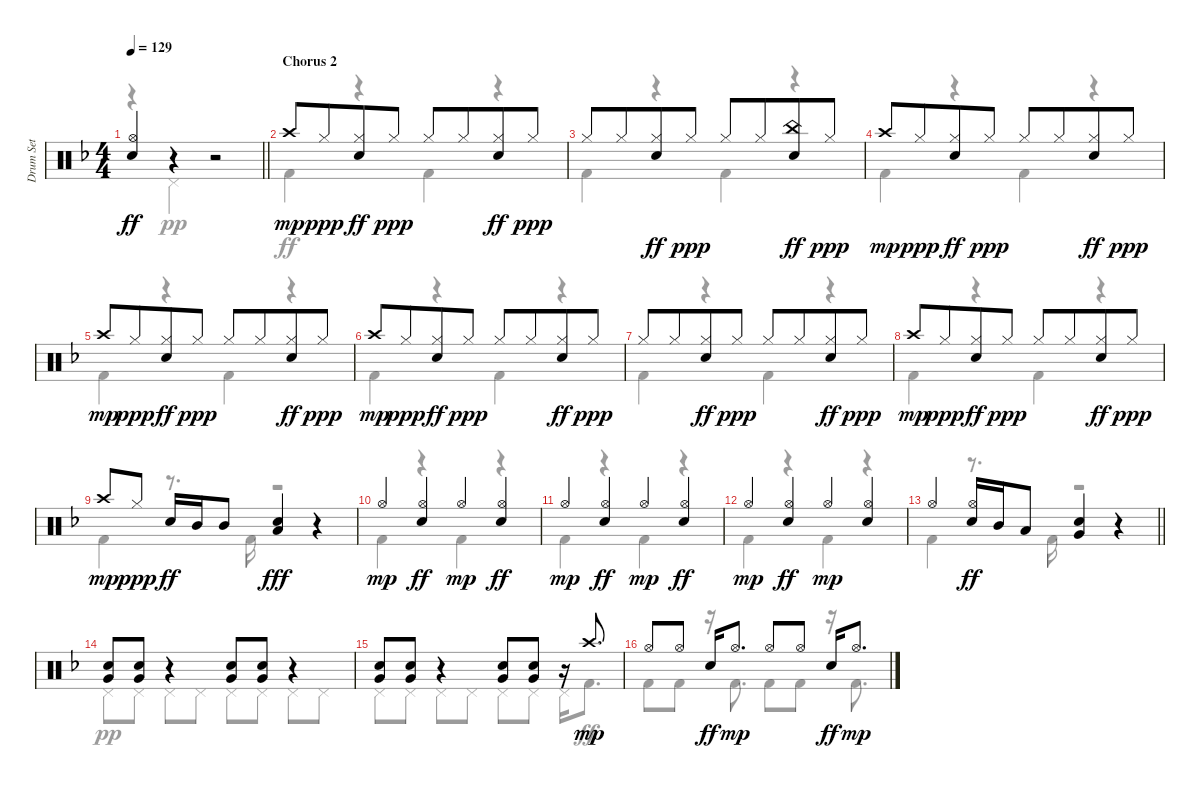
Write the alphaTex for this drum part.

\track ("Drum Set" "Drum Set") {instrument percussion}
\staff {score}
\articulation defaults
\voice
\ts (4 4)
\tempo 129
\clef neutral
\barLineRight lightlight
\ks dminor
("Hi-Hat (open)" "Electric Snare (hit)").4{dy ff} r.4 r.2 |
\section ("" "Chorus 2")
"Crash high (hit)".8{dy mp} "Hi-Hat (closed)".8{dy ppp beam merge} ("Hi-Hat (closed)" "Electric Snare (hit)").8{dy ff} "Hi-Hat (closed)".8{dy ppp} "Hi-Hat (closed)".8 "Hi-Hat (closed)".8{beam merge} ("Hi-Hat (closed)" "Electric Snare (hit)").8{dy ff} "Hi-Hat (closed)".8{dy ppp} |
"Hi-Hat (closed)".8 "Hi-Hat (closed)".8{beam merge} ("Hi-Hat (closed)" "Electric Snare (hit)").8{dy ff} "Hi-Hat (closed)".8{dy ppp} "Hi-Hat (closed)".8 "Hi-Hat (closed)".8{beam merge} ("China (hit)" "Electric Snare (hit)").8{dy ff} "Hi-Hat (closed)".8{dy ppp} |
"Crash high (hit)".8{dy mp} "Hi-Hat (closed)".8{dy ppp beam merge} ("Hi-Hat (closed)" "Electric Snare (hit)").8{dy ff} "Hi-Hat (closed)".8{dy ppp} "Hi-Hat (closed)".8 "Hi-Hat (closed)".8{beam merge} ("Hi-Hat (closed)" "Electric Snare (hit)").8{dy ff} "Hi-Hat (closed)".8{dy ppp} |
"Crash high (hit)".8{dy mp} "Hi-Hat (closed)".8{dy ppp beam merge} ("Hi-Hat (closed)" "Electric Snare (hit)").8{dy ff} "Hi-Hat (closed)".8{dy ppp} "Hi-Hat (closed)".8 "Hi-Hat (closed)".8{beam merge} ("Hi-Hat (closed)" "Electric Snare (hit)").8{dy ff} "Hi-Hat (closed)".8{dy ppp} |
"Crash high (hit)".8{dy mp} "Hi-Hat (closed)".8{dy ppp beam merge} ("Hi-Hat (closed)" "Electric Snare (hit)").8{dy ff} "Hi-Hat (closed)".8{dy ppp} "Hi-Hat (closed)".8 "Hi-Hat (closed)".8{beam merge} ("Hi-Hat (closed)" "Electric Snare (hit)").8{dy ff} "Hi-Hat (closed)".8{dy ppp} |
"Hi-Hat (closed)".8 "Hi-Hat (closed)".8{beam merge} ("Hi-Hat (closed)" "Electric Snare (hit)").8{dy ff} "Hi-Hat (closed)".8{dy ppp} "Hi-Hat (closed)".8 "Hi-Hat (closed)".8{beam merge} ("Hi-Hat (closed)" "Electric Snare (hit)").8{dy ff} "Hi-Hat (closed)".8{dy ppp} |
"Crash high (hit)".8{dy mp} "Hi-Hat (closed)".8{dy ppp beam merge} ("Hi-Hat (closed)" "Electric Snare (hit)").8{dy ff} "Hi-Hat (closed)".8{dy ppp} "Hi-Hat (closed)".8 "Hi-Hat (closed)".8{beam merge} ("Hi-Hat (closed)" "Electric Snare (hit)").8{dy ff} "Hi-Hat (closed)".8{dy ppp} |
"Crash high (hit)".8{dy mp} "Hi-Hat (closed)".8{dy ppp} "Electric Snare (hit)".16{dy ff} "Mid Tom (hit)".16 "Mid Tom (hit)".8 ("Electric Snare (hit)" "Low Floor Tom (hit)").4{dy fff} r.4 |
"Hi-Hat (open)".4{dy mp} ("Hi-Hat (open)" "Electric Snare (hit)").4{dy ff} "Hi-Hat (open)".4{dy mp} ("Hi-Hat (open)" "Electric Snare (hit)").4{dy ff} |
"Hi-Hat (open)".4{dy mp} ("Hi-Hat (open)" "Electric Snare (hit)").4{dy ff} "Hi-Hat (open)".4{dy mp} ("Hi-Hat (open)" "Electric Snare (hit)").4{dy ff} |
"Hi-Hat (open)".4{dy mp} ("Hi-Hat (open)" "Electric Snare (hit)").4{dy ff} "Hi-Hat (open)".4{dy mp} ("Electric Snare (hit)" "Hi-Hat (open)").4 |
\barLineRight lightlight "Hi-Hat (open)".4
("Hi-Hat (open)" "Electric Snare (hit)").16{dy ff} "Mid Tom (hit)".16 "Low Tom (hit)".8 ("Electric Snare (hit)" "Very Low Tom (hit)").4 r.4 |
("Electric Snare (hit)" "Very Low Tom (hit)").8 ("Electric Snare (hit)" "Very Low Tom (hit)").8 r.4 ("Electric Snare (hit)" "Very Low Tom (hit)").8 ("Electric Snare (hit)" "Very Low Tom (hit)").8 r.4 |
("Electric Snare (hit)" "Very Low Tom (hit)").8 ("Electric Snare (hit)" "Very Low Tom (hit)").8 r.4 ("Electric Snare (hit)" "Very Low Tom (hit)").8 ("Electric Snare (hit)" "Very Low Tom (hit)").8 r.16 "Crash high (hit)".8{d dy mp} |
"Hi-Hat (open)".8 "Hi-Hat (open)".8 "Electric Snare (hit)".16{dy ff} "Hi-Hat (open)".8{d dy mp} "Hi-Hat (open)".8 "Hi-Hat (open)".8 "Electric Snare (hit)".16{dy ff} "Hi-Hat (open)".8{d dy mp}
\voice
\clef neutral
\ottava regular
\simile none
\barLineRight lightlight
\ks dminor
r.4{dy ff} "Pedal Hi-Hat (hit)".4{dy pp} r.2 |
"Kick (hit) 2".4{dy ff} r.4 "Kick (hit) 2".4 r.4 |
"Kick (hit) 2".4 r.4 "Kick (hit) 2".4 r.4 |
"Kick (hit) 2".4 r.4 "Kick (hit) 2".4 r.4 |
"Kick (hit) 2".4 r.4 "Kick (hit) 2".4 r.4 |
"Kick (hit) 2".4 r.4 "Kick (hit) 2".4 r.4 |
"Kick (hit) 2".4 r.4 "Kick (hit) 2".4 r.4 |
"Kick (hit) 2".4 r.4 "Kick (hit) 2".4 r.4 |
"Kick (hit) 2".4 r.8{d} "Kick (hit) 2".16 r.2 |
"Kick (hit) 2".4 r.4 "Kick (hit) 2".4 r.4 |
"Kick (hit) 2".4 r.4 "Kick (hit) 2".4 r.4 |
"Kick (hit) 2".4 r.4 "Kick (hit) 2".4 r.4 |
\barLineRight lightlight "Kick (hit) 2".4
r.8{d} "Kick (hit) 2".16 r.2 |
"Pedal Hi-Hat (hit)".8{dy pp} "Pedal Hi-Hat (hit)".8 "Pedal Hi-Hat (hit)".8 "Pedal Hi-Hat (hit)".8 "Pedal Hi-Hat (hit)".8 "Pedal Hi-Hat (hit)".8 "Pedal Hi-Hat (hit)".8 "Pedal Hi-Hat (hit)".8 |
"Pedal Hi-Hat (hit)".8 "Pedal Hi-Hat (hit)".8 "Pedal Hi-Hat (hit)".8 "Pedal Hi-Hat (hit)".8 "Pedal Hi-Hat (hit)".8 "Pedal Hi-Hat (hit)".8 "Pedal Hi-Hat (hit)".16 "Kick (hit) 2".8{d dy ff} |
"Kick (hit) 2".8 "Kick (hit) 2".8 r.16 "Kick (hit) 2".8{d} "Kick (hit) 2".8 "Kick (hit) 2".8 r.16 "Kick (hit) 2".8{d}
